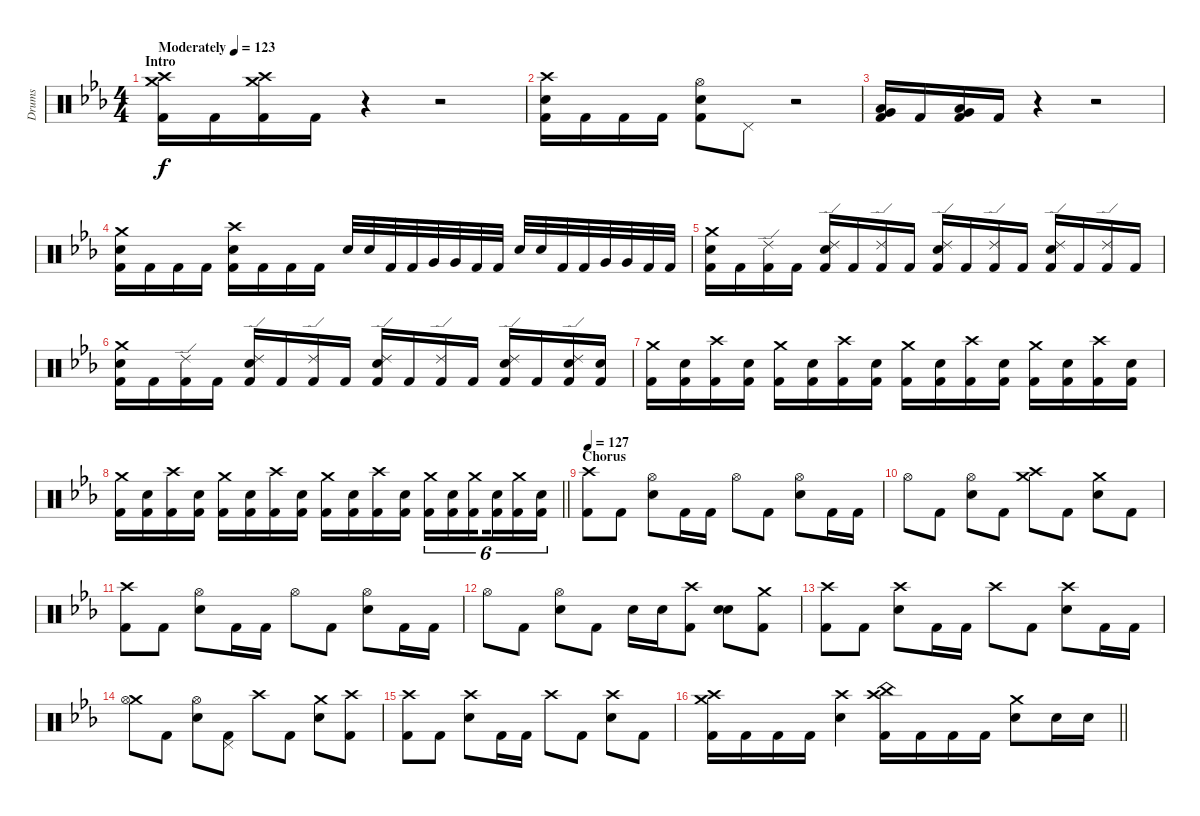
\track ("Drums" "Drums") {instrument percussion}
\staff {score}
\articulation defaults
\ts (4 4)
\section ("" "Intro")
\tempo (123 "Moderately")
\clef neutral
\ks cminor
("Crash medium (hit)" "Crash high (hit)" "Kick (hit) 2").16{dy f} "Kick (hit) 2".16 ("Crash medium (hit)" "Crash high (hit)" "Kick (hit) 2").16 "Kick (hit) 2".16 r.4 r.2 |
("Crash high (hit)" "Snare (hit) 2" "Kick (hit) 2").16 "Kick (hit) 2".16 "Kick (hit) 2".16 "Kick (hit) 2".16 ("Hi-Hat (open)" "Snare (hit) 2" "Kick (hit) 2").8 "Pedal Hi-Hat (hit)".8 r.2 |
("Very Low Tom (hit)" "Low Floor Tom (hit)" "Kick (hit) 2").16 "Kick (hit) 2".16 ("Very Low Tom (hit)" "Low Floor Tom (hit)" "Kick (hit) 2").16 "Kick (hit) 2".16 r.4 r.2 |
("Crash medium (hit)" "Snare (hit) 2" "Kick (hit) 2").16 "Kick (hit) 2".16 "Kick (hit) 2".16 "Kick (hit) 2".16 ("Crash high (hit)" "Snare (hit) 2" "Kick (hit) 2").16 "Kick (hit) 2".16 "Kick (hit) 2".16 "Kick (hit) 2".16 "Snare (hit) 2".32 "Snare (hit) 2".32 "Kick (hit) 2".32 "Kick (hit) 2".32 "Very Low Tom (hit)".32 "Very Low Tom (hit)".32 "Kick (hit) 2".32 "Kick (hit) 2".32 "Snare (hit) 2".32 "Snare (hit) 2".32 "Kick (hit) 2".32 "Kick (hit) 2".32 "Very Low Tom (hit)".32 "Very Low Tom (hit)".32 "Kick (hit) 2".32 "Kick (hit) 2".32 |
("Crash medium (hit)" "Snare (hit) 2" "Kick (hit) 2").16 "Kick (hit) 2".16 ("Ride (edge) 2" "Kick (hit) 2").16 "Kick (hit) 2".16 ("Ride (edge) 2" "Snare (hit) 2" "Kick (hit) 2").16 "Kick (hit) 2".16 ("Ride (edge) 2" "Kick (hit) 2").16 "Kick (hit) 2".16 ("Ride (edge) 2" "Snare (hit) 2" "Kick (hit) 2").16 "Kick (hit) 2".16 ("Ride (edge) 2" "Kick (hit) 2").16 "Kick (hit) 2".16 ("Ride (edge) 2" "Snare (hit) 2" "Kick (hit) 2").16 "Kick (hit) 2".16 ("Ride (edge) 2" "Kick (hit) 2").16 "Kick (hit) 2".16 |
("Crash medium (hit)" "Snare (hit) 2" "Kick (hit) 2").16 "Kick (hit) 2".16 ("Ride (edge) 2" "Kick (hit) 2").16 "Kick (hit) 2".16 ("Ride (edge) 2" "Snare (hit) 2" "Kick (hit) 2").16 "Kick (hit) 2".16 ("Ride (edge) 2" "Kick (hit) 2").16 "Kick (hit) 2".16 ("Ride (edge) 2" "Snare (hit) 2" "Kick (hit) 2").16 "Kick (hit) 2".16 ("Ride (edge) 2" "Kick (hit) 2").16 "Kick (hit) 2".16 ("Ride (edge) 2" "Snare (hit) 2" "Kick (hit) 2").16 "Kick (hit) 2".16 ("Ride (edge) 2" "Snare (hit) 2" "Kick (hit) 2").16 ("Snare (hit) 2" "Kick (hit) 2").16 |
("Crash medium (hit)" "Kick (hit) 2").16 ("Snare (hit) 2" "Kick (hit) 2").16 ("Crash high (hit)" "Kick (hit) 2").16 ("Snare (hit) 2" "Kick (hit) 2").16 ("Crash medium (hit)" "Kick (hit) 2").16 ("Snare (hit) 2" "Kick (hit) 2").16 ("Crash high (hit)" "Kick (hit) 2").16 ("Snare (hit) 2" "Kick (hit) 2").16 ("Crash medium (hit)" "Kick (hit) 2").16 ("Snare (hit) 2" "Kick (hit) 2").16 ("Crash high (hit)" "Kick (hit) 2").16 ("Snare (hit) 2" "Kick (hit) 2").16 ("Crash medium (hit)" "Kick (hit) 2").16 ("Snare (hit) 2" "Kick (hit) 2").16 ("Crash high (hit)" "Kick (hit) 2").16 ("Snare (hit) 2" "Kick (hit) 2").16 |
\barLineRight lightlight
("Crash medium (hit)" "Kick (hit) 2").16 ("Snare (hit) 2" "Kick (hit) 2").16 ("Crash high (hit)" "Kick (hit) 2").16 ("Snare (hit) 2" "Kick (hit) 2").16 ("Crash medium (hit)" "Kick (hit) 2").16 ("Snare (hit) 2" "Kick (hit) 2").16 ("Crash high (hit)" "Kick (hit) 2").16 ("Snare (hit) 2" "Kick (hit) 2").16 ("Crash medium (hit)" "Kick (hit) 2").16 ("Snare (hit) 2" "Kick (hit) 2").16 ("Crash high (hit)" "Kick (hit) 2").16 ("Snare (hit) 2" "Kick (hit) 2").16 ("Crash medium (hit)" "Kick (hit) 2").16{tu (6 4)} ("Snare (hit) 2" "Kick (hit) 2").16{tu (6 4)} ("Crash medium (hit)" "Kick (hit) 2").16{tu (6 4) beam splitsecondary} ("Snare (hit) 2" "Kick (hit) 2").16{tu (6 4)} ("Crash medium (hit)" "Kick (hit) 2").16{tu (6 4)} ("Snare (hit) 2" "Kick (hit) 2").16{tu (6 4)} |
\section ("" "Chorus")
\tempo 127
("Crash high (hit)" "Kick (hit) 2").8 "Kick (hit) 2".8 ("Hi-Hat (open)" "Snare (hit) 2").8 "Kick (hit) 2".16 "Kick (hit) 2".16 "Hi-Hat (open)".8 "Kick (hit) 2".8 ("Hi-Hat (open)" "Snare (hit) 2").8 "Kick (hit) 2".16 "Kick (hit) 2".16 |
"Hi-Hat (open)".8 "Kick (hit) 2".8 ("Hi-Hat (open)" "Snare (hit) 2").8 "Kick (hit) 2".8 ("Crash high (hit)" "Crash medium (hit)").8 "Kick (hit) 2".8 ("Crash medium (hit)" "Snare (hit) 2").8 "Kick (hit) 2".8 |
("Crash high (hit)" "Kick (hit) 2").8 "Kick (hit) 2".8 ("Hi-Hat (open)" "Snare (hit) 2").8 "Kick (hit) 2".16 "Kick (hit) 2".16 "Hi-Hat (open)".8 "Kick (hit) 2".8 ("Hi-Hat (open)" "Snare (hit) 2").8 "Kick (hit) 2".16 "Kick (hit) 2".16 |
"Hi-Hat (open)".8 "Kick (hit) 2".8 ("Hi-Hat (open)" "Snare (hit) 2").8 "Kick (hit) 2".8 "Snare (hit) 2".16 "Snare (hit) 2".16 ("Crash high (hit)" "Kick (hit) 2").8 ("Snare (hit) 2" "Snare (hit) 2").8 ("Crash medium (hit)" "Kick (hit) 2").8 |
("Crash high (hit)" "Kick (hit) 2").8 "Kick (hit) 2".8 ("Crash high (hit)" "Snare (hit) 2").8 "Kick (hit) 2".16 "Kick (hit) 2".16 "Crash high (hit)".8 "Kick (hit) 2".8 ("Crash high (hit)" "Snare (hit) 2").8 "Kick (hit) 2".16 "Kick (hit) 2".16 |
("Crash medium (hit)" "Hi-Hat (open)").8 "Kick (hit) 2".8 ("Hi-Hat (open)" "Snare (hit) 2").8 ("Pedal Hi-Hat (hit)" "Kick (hit) 2").8 "Crash high (hit)".8 "Kick (hit) 2".8 ("Crash medium (hit)" "Snare (hit) 2").8 ("Crash high (hit)" "Kick (hit) 2").8 |
("Crash high (hit)" "Kick (hit) 2").8 "Kick (hit) 2".8 ("Crash high (hit)" "Snare (hit) 2").8 "Kick (hit) 2".16 "Kick (hit) 2".16 "Crash high (hit)".8 "Kick (hit) 2".8 ("Crash high (hit)" "Snare (hit) 2").8 "Kick (hit) 2".8 |
\barLineRight lightlight
("Crash medium (hit)" "Crash high (hit)" "Kick (hit) 2").16 "Kick (hit) 2".16 "Kick (hit) 2".16 "Kick (hit) 2".16 ("Crash high (hit)" "Snare (hit) 2").4 ("China (hit)" "Crash high (hit)" "Kick (hit) 2").16 "Kick (hit) 2".16 "Kick (hit) 2".16 "Kick (hit) 2".16 ("Crash medium (hit)" "Snare (hit) 2").8 "Snare (hit) 2".16 "Snare (hit) 2".16
